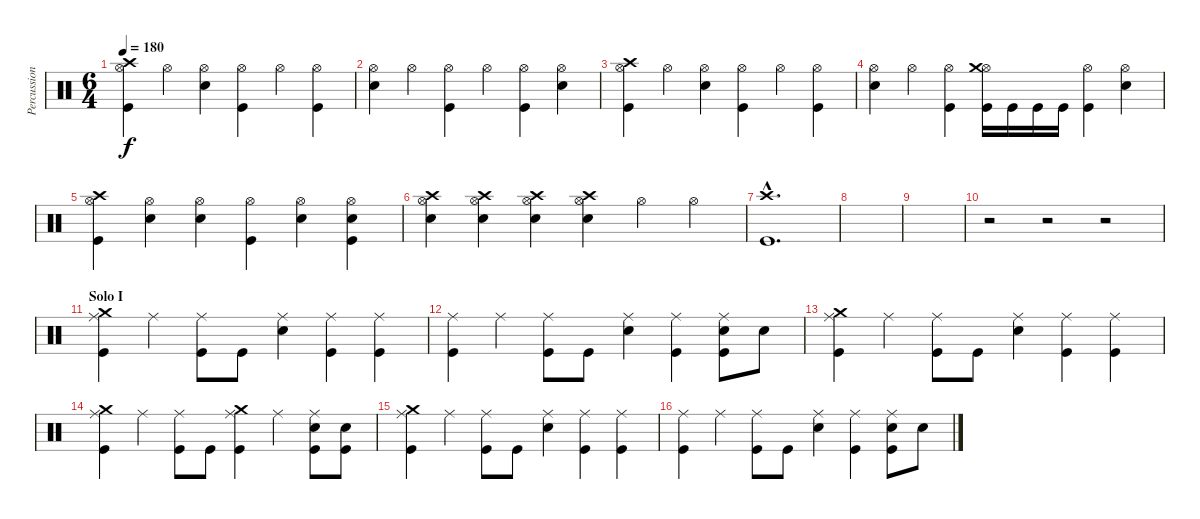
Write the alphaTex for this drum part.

\track ("Percussion" "Percussion") {instrument percussion}
\staff {score}
\articulation defaults
\ts (6 4)
\tempo 180
\clef neutral
\ks c
("Crash high (hit)" "Hi-Hat (open)" "Kick (hit)").4{dy f} "Hi-Hat (open)".4 ("Hi-Hat (open)" "Electric Snare (hit)").4 ("Hi-Hat (open)" "Kick (hit)").4 "Hi-Hat (open)".4 ("Hi-Hat (open)" "Kick (hit)").4 |
("Hi-Hat (open)" "Electric Snare (hit)").4 "Hi-Hat (open)".4 ("Hi-Hat (open)" "Kick (hit)").4 "Hi-Hat (open)".4 ("Hi-Hat (open)" "Kick (hit)").4 ("Hi-Hat (open)" "Electric Snare (hit)").4 |
("Crash high (hit)" "Hi-Hat (open)" "Kick (hit)").4 "Hi-Hat (open)".4 ("Hi-Hat (open)" "Electric Snare (hit)").4 ("Hi-Hat (open)" "Kick (hit)").4 "Hi-Hat (open)".4 ("Hi-Hat (open)" "Kick (hit)").4 |
("Hi-Hat (open)" "Electric Snare (hit)").4 "Hi-Hat (open)".4 ("Hi-Hat (open)" "Kick (hit)").4 ("Hi-Hat (open)" "Crash medium (hit)" "Kick (hit)").16 "Kick (hit)".16 "Kick (hit)".16 "Kick (hit)".16 ("Hi-Hat (open)" "Kick (hit)").4 ("Hi-Hat (open)" "Electric Snare (hit)").4 |
("Crash high (hit)" "Hi-Hat (open)" "Kick (hit)").4 ("Hi-Hat (open)" "Electric Snare (hit)").4 ("Hi-Hat (open)" "Electric Snare (hit)").4 ("Hi-Hat (open)" "Kick (hit)").4 ("Hi-Hat (open)" "Electric Snare (hit)").4 ("Hi-Hat (open)" "Electric Snare (hit)" "Kick (hit)").4 |
("Hi-Hat (open)" "Crash high (hit)" "Electric Snare (hit)").4 ("Hi-Hat (open)" "Crash high (hit)" "Electric Snare (hit)").4 ("Hi-Hat (open)" "Crash high (hit)" "Electric Snare (hit)").4 ("Hi-Hat (open)" "Crash high (hit)" "Electric Snare (hit)").4 "Hi-Hat (open)".4 "Hi-Hat (open)".4 |
("Crash high (hit)"{hac} "Kick (hit)"{hac}).1{d} |
|
|
r.2 r.2 r.2 |
\section ("" "Solo I")
("Ride (middle)" "Crash medium (hit)" "Kick (hit)").4 "Ride (middle)".4 ("Ride (middle)" "Kick (hit)").8 "Kick (hit)".8 ("Ride (middle)" "Electric Snare (hit)").4 ("Ride (middle)" "Kick (hit)").4 ("Ride (middle)" "Kick (hit)").4 |
("Ride (middle)" "Kick (hit)").4 "Ride (middle)".4 ("Ride (middle)" "Kick (hit)").8 "Kick (hit)".8 ("Ride (middle)" "Electric Snare (hit)").4 ("Ride (middle)" "Kick (hit)").4 ("Ride (middle)" "Electric Snare (hit)" "Kick (hit)").8 "Electric Snare (hit)".8 |
("Ride (middle)" "Crash medium (hit)" "Kick (hit)").4 "Ride (middle)".4 ("Ride (middle)" "Kick (hit)").8 "Kick (hit)".8 ("Ride (middle)" "Electric Snare (hit)").4 ("Ride (middle)" "Kick (hit)").4 ("Ride (middle)" "Kick (hit)").4 |
("Ride (middle)" "Crash medium (hit)" "Kick (hit)").4 "Ride (middle)".4 ("Ride (middle)" "Kick (hit)").8 "Kick (hit)".8 ("Ride (middle)" "Crash medium (hit)" "Kick (hit)").4 "Ride (middle)".4 ("Ride (middle)" "Electric Snare (hit)" "Kick (hit)").8 ("Electric Snare (hit)" "Kick (hit)").8 |
("Ride (middle)" "Crash medium (hit)" "Kick (hit)").4 "Ride (middle)".4 ("Ride (middle)" "Kick (hit)").8 "Kick (hit)".8 ("Ride (middle)" "Electric Snare (hit)").4 ("Ride (middle)" "Kick (hit)").4 ("Ride (middle)" "Kick (hit)").4 |
("Ride (middle)" "Kick (hit)").4 "Ride (middle)".4 ("Ride (middle)" "Kick (hit)").8 "Kick (hit)".8 ("Ride (middle)" "Electric Snare (hit)").4 ("Ride (middle)" "Kick (hit)").4 ("Ride (middle)" "Electric Snare (hit)" "Kick (hit)").8 "Electric Snare (hit)".8
